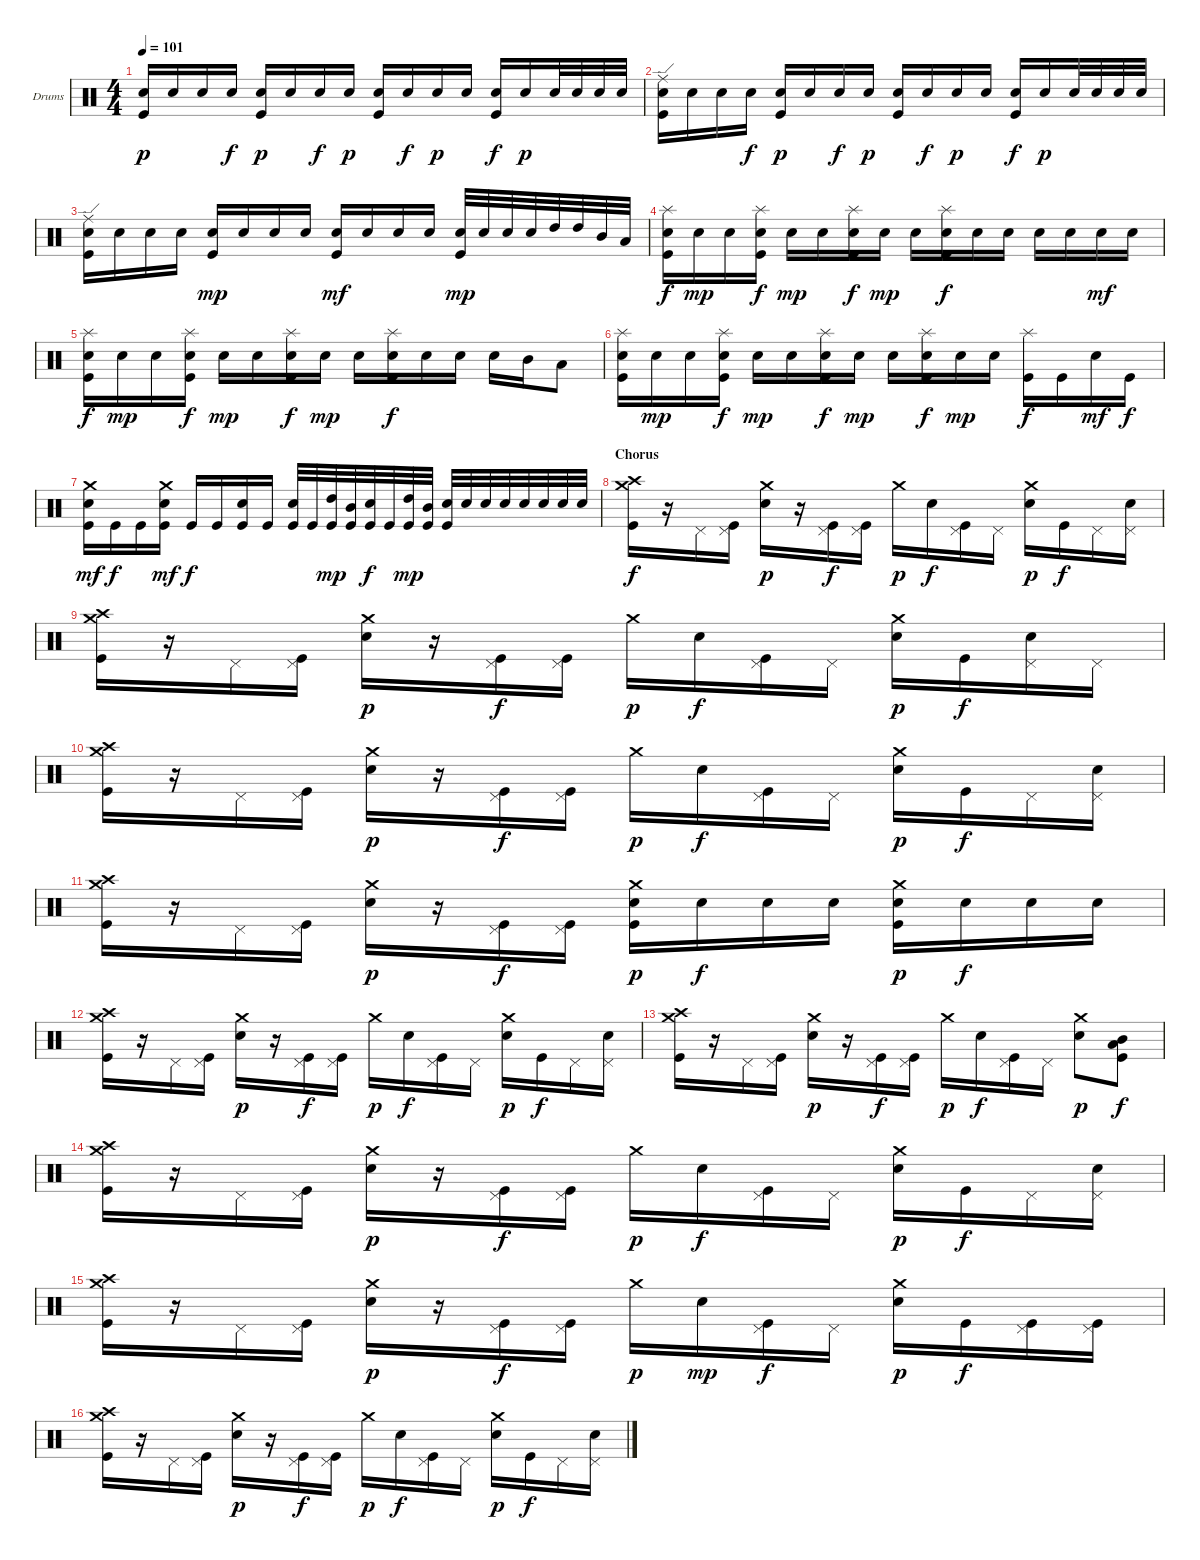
\bracketExtendMode groupsimilarinstruments
\firstSystemTrackNameOrientation horizontal
\otherSystemsTrackNameOrientation horizontal
\track ("Drumkit" "Drums") {instrument percussion}
\staff {score}
\articulation defaults
\ts (4 4)
\tempo 101
\clef neutral
\ks c
("Snare (hit) 2" "Kick (hit)").16{dy p} "Snare (hit) 2".16 "Snare (hit) 2".16 "Snare (hit) 2".16{dy f} ("Snare (hit) 2" "Kick (hit)").16{dy p} "Snare (hit) 2".16 "Snare (hit) 2".16{dy f} "Snare (hit) 2".16{dy p} ("Snare (hit) 2" "Kick (hit)").16 "Snare (hit) 2".16{dy f} "Snare (hit) 2".16{dy p} "Snare (hit) 2".16 ("Snare (hit) 2" "Kick (hit)").16{dy f} "Snare (hit) 2".16{dy p} "Snare (hit) 2".32 "Snare (hit) 2".32 "Snare (hit) 2".32 "Snare (hit) 2".32 |
("Snare (hit) 2" "Ride (edge)" "Kick (hit)").16 "Snare (hit) 2".16 "Snare (hit) 2".16 "Snare (hit) 2".16{dy f} ("Snare (hit) 2" "Kick (hit)").16{dy p} "Snare (hit) 2".16 "Snare (hit) 2".16{dy f} "Snare (hit) 2".16{dy p} ("Snare (hit) 2" "Kick (hit)").16 "Snare (hit) 2".16{dy f} "Snare (hit) 2".16{dy p} "Snare (hit) 2".16 ("Snare (hit) 2" "Kick (hit)").16{dy f} "Snare (hit) 2".16{dy p} "Snare (hit) 2".32 "Snare (hit) 2".32 "Snare (hit) 2".32 "Snare (hit) 2".32 |
("Snare (hit) 2" "Ride (edge)" "Kick (hit)").16 "Snare (hit) 2".16 "Snare (hit) 2".16 "Snare (hit) 2".16 ("Snare (hit) 2" "Kick (hit)").16{dy mp} "Snare (hit) 2".16 "Snare (hit) 2".16 "Snare (hit) 2".16 ("Snare (hit) 2" "Kick (hit)").16{dy mf} "Snare (hit) 2".16 "Snare (hit) 2".16 "Snare (hit) 2".16 ("Snare (hit) 2" "Kick (hit)").32{dy mp} "Snare (hit) 2".32 "Snare (hit) 2".32 "Snare (hit) 2".32 "High Tom (hit)".32 "High Tom (hit)".32 "Mid Tom (hit)".32 "Low Tom (hit)".32 |
("Splash (hit)" "Snare (hit) 2" "Kick (hit)").16{dy f} "Snare (hit) 2".16{dy mp} "Snare (hit) 2".16 ("Splash (hit)" "Snare (hit) 2" "Kick (hit)").16{dy f} "Snare (hit) 2".16{dy mp} "Snare (hit) 2".16 ("Splash (hit)" "Snare (hit) 2" "Kick (hit)").16{dy f} "Snare (hit) 2".16{dy mp} "Snare (hit) 2".16 ("Splash (hit)" "Snare (hit) 2" "Kick (hit)").16{dy f} "Snare (hit) 2".16 "Snare (hit) 2".16 "Snare (hit) 2".16 "Snare (hit) 2".16 "Snare (hit) 2".16{dy mf} "Snare (hit) 2".16 |
("Splash (hit)" "Snare (hit) 2" "Kick (hit)").16{dy f} "Snare (hit) 2".16{dy mp} "Snare (hit) 2".16 ("Splash (hit)" "Snare (hit) 2" "Kick (hit)").16{dy f} "Snare (hit) 2".16{dy mp} "Snare (hit) 2".16 ("Splash (hit)" "Snare (hit) 2" "Kick (hit)").16{dy f} "Snare (hit) 2".16{dy mp} "Snare (hit) 2".16 ("Splash (hit)" "Snare (hit) 2" "Kick (hit)").16{dy f} "Snare (hit) 2".16 "Snare (hit) 2".16 "Snare (hit) 2".16 "Mid Tom (hit)".16 "Low Tom (hit)".8 |
("Splash (hit)" "Snare (hit) 2" "Kick (hit)").16 "Snare (hit) 2".16{dy mp} "Snare (hit) 2".16 ("Splash (hit)" "Snare (hit) 2" "Kick (hit)").16{dy f} "Snare (hit) 2".16{dy mp} "Snare (hit) 2".16 ("Splash (hit)" "Snare (hit) 2" "Kick (hit)").16{dy f} "Snare (hit) 2".16{dy mp} "Snare (hit) 2".16 ("Splash (hit)" "Snare (hit) 2" "Kick (hit)").16{dy f} "Snare (hit) 2".16{dy mp} "Snare (hit) 2".16 ("Splash (hit)" "Kick (hit)").16{dy f} "Kick (hit)".16 "Snare (hit) 2".16{dy mf} "Kick (hit)".16{dy f} |
("Crash medium (hit)" "Snare (hit) 2" "Kick (hit)").16{dy mf} "Kick (hit)".16{dy f} "Kick (hit)".16 ("Crash medium (hit)" "Snare (hit) 2" "Kick (hit)").16{dy mf} "Kick (hit)".16{dy f} "Kick (hit)".16 ("Snare (hit) 2" "Kick (hit)").16 "Kick (hit)".16 ("Snare (hit) 2" "Kick (hit)").32 "Kick (hit)".32 ("High Tom (hit)" "Kick (hit)").32{dy mp} ("Mid Tom (hit)" "Kick (hit)").32 ("Snare (hit) 2" "Kick (hit)").32{dy f} "Kick (hit)".32 ("High Tom (hit)" "Kick (hit)").32{dy mp} ("Mid Tom (hit)" "Kick (hit)").32 ("Snare (hit) 2" "Kick (hit)").32 "Snare (hit) 2".32 "Snare (hit) 2".32 "Snare (hit) 2".32 "Snare (hit) 2".32 "Snare (hit) 2".32 "Snare (hit) 2".32 "Snare (hit) 2".32 |
\section ("" "Chorus")
("Crash high (hit)" "Crash medium (hit)" "Kick (hit)").16{dy f} r.16 "Pedal Hi-Hat (hit)".16 ("Pedal Hi-Hat (hit)" "Kick (hit)").16 ("Crash medium (hit)" "Snare (hit) 2").16{dy p} r.16 ("Pedal Hi-Hat (hit)" "Kick (hit)").16{dy f} ("Pedal Hi-Hat (hit)" "Kick (hit)").16 "Crash medium (hit)".16{dy p} "Snare (hit) 2".16{dy f} ("Pedal Hi-Hat (hit)" "Kick (hit)").16 "Pedal Hi-Hat (hit)".16 ("Crash medium (hit)" "Snare (hit) 2").16{dy p} "Kick (hit)".16{dy f} "Pedal Hi-Hat (hit)".16 ("Pedal Hi-Hat (hit)" "Snare (hit) 2").16 |
("Crash high (hit)" "Crash medium (hit)" "Kick (hit)").16 r.16 "Pedal Hi-Hat (hit)".16 ("Pedal Hi-Hat (hit)" "Kick (hit)").16 ("Crash medium (hit)" "Snare (hit) 2").16{dy p} r.16 ("Pedal Hi-Hat (hit)" "Kick (hit)").16{dy f} ("Pedal Hi-Hat (hit)" "Kick (hit)").16 "Crash medium (hit)".16{dy p} "Snare (hit) 2".16{dy f} ("Pedal Hi-Hat (hit)" "Kick (hit)").16 "Pedal Hi-Hat (hit)".16 ("Crash medium (hit)" "Snare (hit) 2").16{dy p} "Kick (hit)".16{dy f} ("Pedal Hi-Hat (hit)" "Snare (hit) 2").16 "Pedal Hi-Hat (hit)".16 |
("Crash high (hit)" "Crash medium (hit)" "Kick (hit)").16 r.16 "Pedal Hi-Hat (hit)".16 ("Pedal Hi-Hat (hit)" "Kick (hit)").16 ("Crash medium (hit)" "Snare (hit) 2").16{dy p} r.16 ("Pedal Hi-Hat (hit)" "Kick (hit)").16{dy f} ("Pedal Hi-Hat (hit)" "Kick (hit)").16 "Crash medium (hit)".16{dy p} "Snare (hit) 2".16{dy f} ("Pedal Hi-Hat (hit)" "Kick (hit)").16 "Pedal Hi-Hat (hit)".16 ("Crash medium (hit)" "Snare (hit) 2").16{dy p} "Kick (hit)".16{dy f} "Pedal Hi-Hat (hit)".16 ("Pedal Hi-Hat (hit)" "Snare (hit) 2").16 |
("Crash high (hit)" "Crash medium (hit)" "Kick (hit)").16 r.16 "Pedal Hi-Hat (hit)".16 ("Pedal Hi-Hat (hit)" "Kick (hit)").16 ("Crash medium (hit)" "Snare (hit) 2").16{dy p} r.16 ("Pedal Hi-Hat (hit)" "Kick (hit)").16{dy f} ("Pedal Hi-Hat (hit)" "Kick (hit)").16 ("Crash medium (hit)" "Snare (hit) 2" "Kick (hit)").16{dy p} "Snare (hit) 2".16{dy f} "Snare (hit) 2".16 "Snare (hit) 2".16 ("Crash medium (hit)" "Snare (hit) 2" "Kick (hit)").16{dy p} "Snare (hit) 2".16{dy f} "Snare (hit) 2".16 "Snare (hit) 2".16 |
("Crash high (hit)" "Crash medium (hit)" "Kick (hit)").16 r.16 "Pedal Hi-Hat (hit)".16 ("Pedal Hi-Hat (hit)" "Kick (hit)").16 ("Crash medium (hit)" "Snare (hit) 2").16{dy p} r.16 ("Pedal Hi-Hat (hit)" "Kick (hit)").16{dy f} ("Pedal Hi-Hat (hit)" "Kick (hit)").16 "Crash medium (hit)".16{dy p} "Snare (hit) 2".16{dy f} ("Pedal Hi-Hat (hit)" "Kick (hit)").16 "Pedal Hi-Hat (hit)".16 ("Crash medium (hit)" "Snare (hit) 2").16{dy p} "Kick (hit)".16{dy f} "Pedal Hi-Hat (hit)".16 ("Pedal Hi-Hat (hit)" "Snare (hit) 2").16 |
("Crash high (hit)" "Crash medium (hit)" "Kick (hit)").16 r.16 "Pedal Hi-Hat (hit)".16 ("Pedal Hi-Hat (hit)" "Kick (hit)").16 ("Crash medium (hit)" "Snare (hit) 2").16{dy p} r.16 ("Pedal Hi-Hat (hit)" "Kick (hit)").16{dy f} ("Pedal Hi-Hat (hit)" "Kick (hit)").16 "Crash medium (hit)".16{dy p} "Snare (hit) 2".16{dy f} ("Pedal Hi-Hat (hit)" "Kick (hit)").16 "Pedal Hi-Hat (hit)".16 ("Crash medium (hit)" "Snare (hit) 2").8{dy p} ("Low Tom (hit)" "Mid Tom (hit)" "Kick (hit)").8{dy f} |
("Crash high (hit)" "Crash medium (hit)" "Kick (hit)").16 r.16 "Pedal Hi-Hat (hit)".16 ("Pedal Hi-Hat (hit)" "Kick (hit)").16 ("Crash medium (hit)" "Snare (hit) 2").16{dy p} r.16 ("Pedal Hi-Hat (hit)" "Kick (hit)").16{dy f} ("Pedal Hi-Hat (hit)" "Kick (hit)").16 "Crash medium (hit)".16{dy p} "Snare (hit) 2".16{dy f} ("Pedal Hi-Hat (hit)" "Kick (hit)").16 "Pedal Hi-Hat (hit)".16 ("Crash medium (hit)" "Snare (hit) 2").16{dy p} "Kick (hit)".16{dy f} "Pedal Hi-Hat (hit)".16 ("Pedal Hi-Hat (hit)" "Snare (hit) 2").16 |
("Crash high (hit)" "Crash medium (hit)" "Kick (hit)").16 r.16 "Pedal Hi-Hat (hit)".16 ("Pedal Hi-Hat (hit)" "Kick (hit)").16 ("Crash medium (hit)" "Snare (hit) 2").16{dy p} r.16 ("Pedal Hi-Hat (hit)" "Kick (hit)").16{dy f} ("Pedal Hi-Hat (hit)" "Kick (hit)").16 "Crash medium (hit)".16{dy p} "Snare (hit) 2".16{dy mp} ("Pedal Hi-Hat (hit)" "Kick (hit)").16{dy f} "Pedal Hi-Hat (hit)".16 ("Crash medium (hit)" "Snare (hit) 2").16{dy p} "Kick (hit)".16{dy f} ("Pedal Hi-Hat (hit)" "Kick (hit)").16 ("Pedal Hi-Hat (hit)" "Kick (hit)").16 |
("Crash high (hit)" "Crash medium (hit)" "Kick (hit)").16 r.16 "Pedal Hi-Hat (hit)".16 ("Pedal Hi-Hat (hit)" "Kick (hit)").16 ("Crash medium (hit)" "Snare (hit) 2").16{dy p} r.16 ("Pedal Hi-Hat (hit)" "Kick (hit)").16{dy f} ("Pedal Hi-Hat (hit)" "Kick (hit)").16 "Crash medium (hit)".16{dy p} "Snare (hit) 2".16{dy f} ("Pedal Hi-Hat (hit)" "Kick (hit)").16 "Pedal Hi-Hat (hit)".16 ("Crash medium (hit)" "Snare (hit) 2").16{dy p} "Kick (hit)".16{dy f} "Pedal Hi-Hat (hit)".16 ("Pedal Hi-Hat (hit)" "Snare (hit) 2").16
